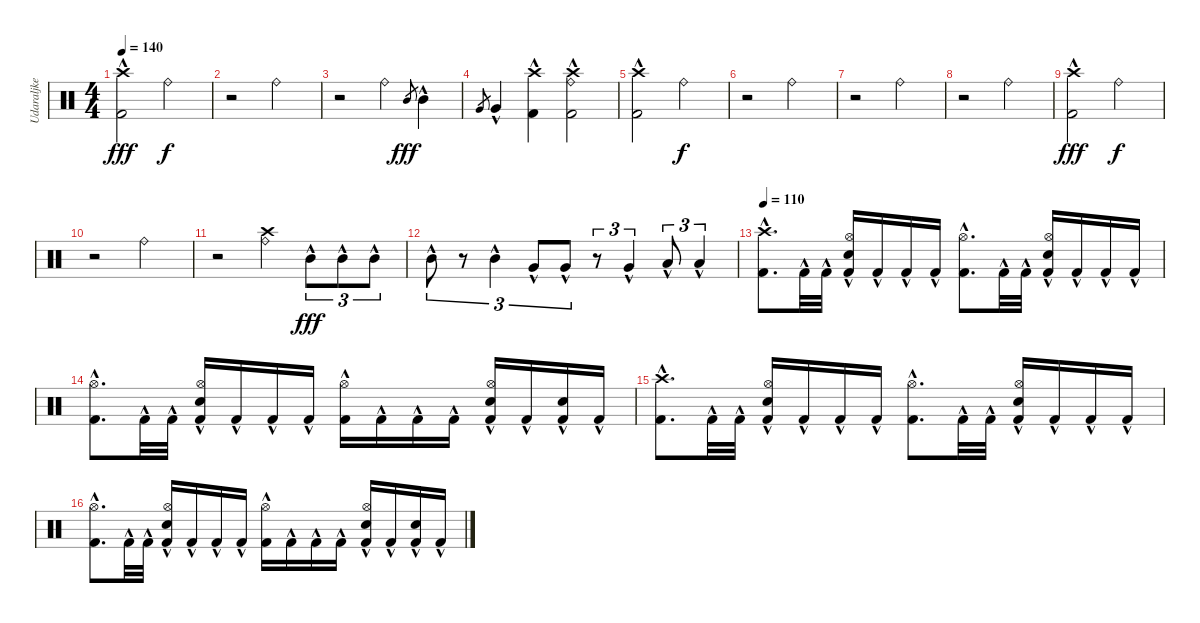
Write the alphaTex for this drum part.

\track ("Udaraljke" "Udaraljke") {instrument percussion}
\staff {score}
\articulation defaults
\ts (4 4)
\tempo 140
\clef neutral
\ks c
("Crash high (hit)" "Kick (hit) 2"{hac}).2{dy fff} "Ride (bell)".2{dy f} |
r.2 "Ride (bell)".2 |
r.2 "Ride (bell)".4 "Mid Tom (hit)".8{gr dy fff} "Mid Tom (hit)"{hac}.4 |
"Very Low Tom (hit)".8{gr} "Very Low Tom (hit)"{hac}.4 ("Crash high (hit)" "Kick (hit) 2"{hac}).4 ("Crash high (hit)" "Ride (bell)" "Kick (hit) 2"{hac}).2 |
("Crash high (hit)" "Kick (hit) 2"{hac}).2 "Ride (bell)".2{dy f} |
r.2 "Ride (bell)".2 |
r.2 "Ride (bell)".2 |
r.2 "Ride (bell)".2 |
("Crash high (hit)" "Kick (hit) 2"{hac}).2{dy fff} "Ride (bell)".2{dy f} |
r.2 "Ride (bell)".2 |
r.2 ("Crash high (hit)" "Ride (bell)").4 "Mid Tom (hit)"{hac}.8{tu (3 2) dy fff} "Mid Tom (hit)"{hac}.8{tu (3 2)} "Mid Tom (hit)"{hac}.8{tu (3 2)} |
"Mid Tom (hit)"{hac}.8{tu (3 2)} r.8{tu (3 2)} "Mid Tom (hit)"{hac}.4{tu (3 2)} "Very Low Tom (hit)"{hac}.8{tu (3 2)} "Very Low Tom (hit)"{hac}.8{tu (3 2)} r.8{tu (3 2)} "Very Low Tom (hit)"{hac}.4{tu (3 2)} "Low Floor Tom (hit)"{hac}.8{tu (3 2)} "Low Floor Tom (hit)"{hac}.4{tu (3 2)} |
\tempo 110
("Crash high (hit)" "Kick (hit) 2"{hac}).8{d} "Kick (hit) 2"{hac}.32 "Kick (hit) 2"{hac}.32 ("Hi-Hat (open)" "Snare (hit) 2"{hac} "Kick (hit) 2"{hac}).16 "Kick (hit) 2"{hac}.16 "Kick (hit) 2"{hac}.16 "Kick (hit) 2"{hac}.16 ("Hi-Hat (open)" "Kick (hit) 2"{hac}).8{d} "Kick (hit) 2"{hac}.32 "Kick (hit) 2"{hac}.32 ("Hi-Hat (open)" "Snare (hit) 2"{hac} "Kick (hit) 2"{hac}).16 "Kick (hit) 2"{hac}.16 "Kick (hit) 2"{hac}.16 "Kick (hit) 2"{hac}.16 |
("Hi-Hat (open)" "Kick (hit) 2"{hac}).8{d} "Kick (hit) 2"{hac}.32 "Kick (hit) 2"{hac}.32 ("Hi-Hat (open)" "Snare (hit) 2"{hac} "Kick (hit) 2"{hac}).16 "Kick (hit) 2"{hac}.16 "Kick (hit) 2"{hac}.16 "Kick (hit) 2"{hac}.16 ("Hi-Hat (open)" "Kick (hit) 2"{hac}).16 "Kick (hit) 2"{hac}.16 "Kick (hit) 2"{hac}.16 "Kick (hit) 2"{hac}.16 ("Hi-Hat (open)" "Snare (hit) 2"{hac} "Kick (hit) 2"{hac}).16 "Kick (hit) 2"{hac}.16 ("Snare (hit) 2"{hac} "Kick (hit) 2"{hac}).16 "Kick (hit) 2"{hac}.16 |
("Crash high (hit)" "Kick (hit) 2"{hac}).8{d} "Kick (hit) 2"{hac}.32 "Kick (hit) 2"{hac}.32 ("Hi-Hat (open)" "Snare (hit) 2"{hac} "Kick (hit) 2"{hac}).16 "Kick (hit) 2"{hac}.16 "Kick (hit) 2"{hac}.16 "Kick (hit) 2"{hac}.16 ("Hi-Hat (open)" "Kick (hit) 2"{hac}).8{d} "Kick (hit) 2"{hac}.32 "Kick (hit) 2"{hac}.32 ("Hi-Hat (open)" "Snare (hit) 2"{hac} "Kick (hit) 2"{hac}).16 "Kick (hit) 2"{hac}.16 "Kick (hit) 2"{hac}.16 "Kick (hit) 2"{hac}.16 |
("Hi-Hat (open)" "Kick (hit) 2"{hac}).8{d} "Kick (hit) 2"{hac}.32 "Kick (hit) 2"{hac}.32 ("Hi-Hat (open)" "Snare (hit) 2"{hac} "Kick (hit) 2"{hac}).16 "Kick (hit) 2"{hac}.16 "Kick (hit) 2"{hac}.16 "Kick (hit) 2"{hac}.16 ("Hi-Hat (open)" "Kick (hit) 2"{hac}).16 "Kick (hit) 2"{hac}.16 "Kick (hit) 2"{hac}.16 "Kick (hit) 2"{hac}.16 ("Hi-Hat (open)" "Snare (hit) 2"{hac} "Kick (hit) 2"{hac}).16 "Kick (hit) 2"{hac}.16 ("Snare (hit) 2"{hac} "Kick (hit) 2"{hac}).16 "Kick (hit) 2"{hac}.16
